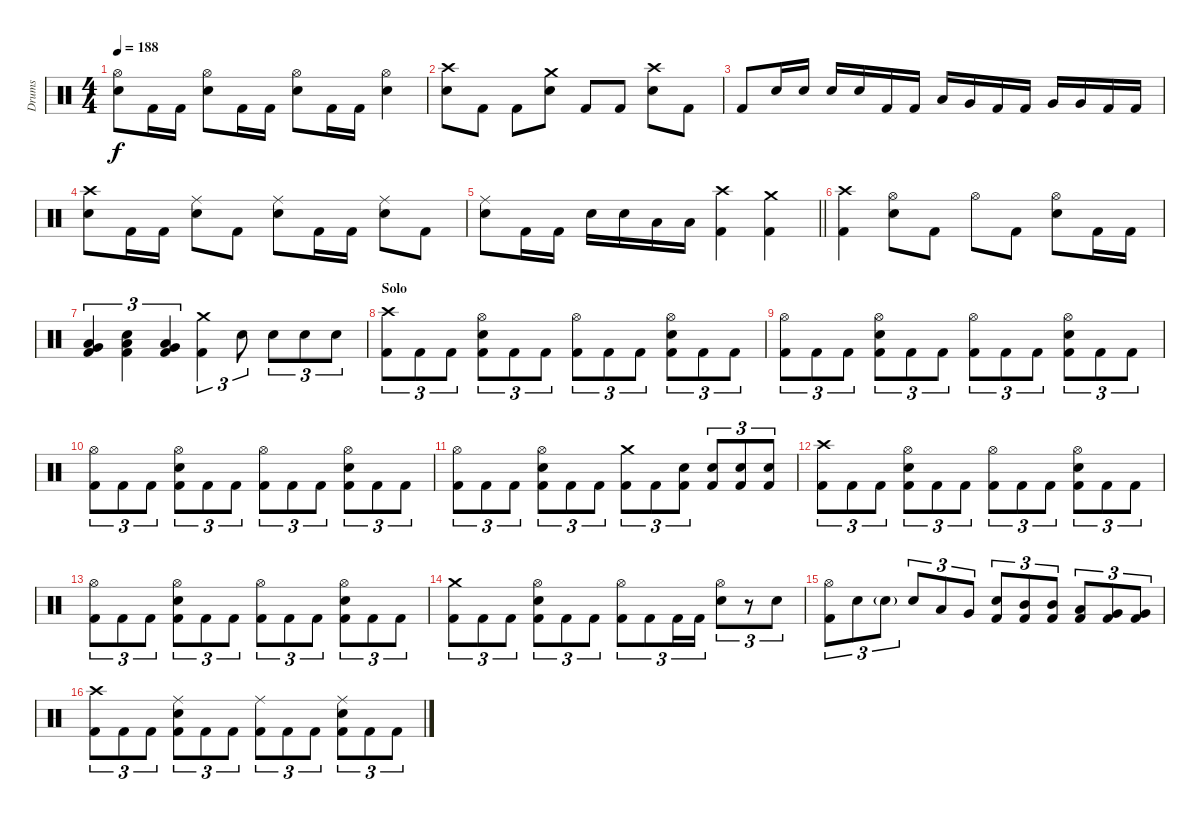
\track ("Drums" "Drums") {instrument percussion}
\staff {score}
\articulation defaults
\ts (4 4)
\tempo 188
\clef neutral
\ks c
("Hi-Hat (open)" "Electric Snare (hit)").8{dy f} "Kick (hit) 2".16 "Kick (hit) 2".16 ("Hi-Hat (open)" "Electric Snare (hit)").8 "Kick (hit) 2".16 "Kick (hit) 2".16 ("Hi-Hat (open)" "Electric Snare (hit)").8 "Kick (hit) 2".16 "Kick (hit) 2".16 ("Hi-Hat (open)" "Electric Snare (hit)").4 |
("Crash high (hit)" "Electric Snare (hit)").8 "Kick (hit) 2".8 "Kick (hit) 2".8 ("Crash medium (hit)" "Electric Snare (hit)").8 "Kick (hit) 2".8 "Kick (hit) 2".8 ("Crash high (hit)" "Electric Snare (hit)").8 "Kick (hit) 2".8 |
"Kick (hit) 2".8 "Electric Snare (hit)".16 "Electric Snare (hit)".16 "Electric Snare (hit)".16 "Electric Snare (hit)".16 "Kick (hit) 2".16 "Kick (hit) 2".16 "Low Tom (hit)".16 "Very Low Tom (hit)".16 "Kick (hit) 2".16 "Kick (hit) 2".16 "Very Low Tom (hit)".16 "Very Low Tom (hit)".16 "Kick (hit) 2".16 "Kick (hit) 2".16 |
("Crash high (hit)" "Electric Snare (hit)").8 "Kick (hit) 2".16 "Kick (hit) 2".16 ("Ride (middle)" "Electric Snare (hit)").8 "Kick (hit) 2".8 ("Ride (middle)" "Electric Snare (hit)").8 "Kick (hit) 2".16 "Kick (hit) 2".16 ("Ride (middle)" "Electric Snare (hit)").8 "Kick (hit) 2".8 |
\barLineRight lightlight
("Ride (middle)" "Electric Snare (hit)").8 "Kick (hit) 2".16 "Kick (hit) 2".16 "Electric Snare (hit)".16 "Electric Snare (hit)".16 "Low Tom (hit)".16 "Low Tom (hit)".16 ("Crash high (hit)" "Kick (hit) 2").4 ("Crash medium (hit)" "Kick (hit) 2").4 |
("Crash high (hit)" "Kick (hit) 2").4 ("Hi-Hat (open)" "Electric Snare (hit)").8 "Kick (hit) 2".8 "Hi-Hat (open)".8 "Kick (hit) 2".8 ("Hi-Hat (open)" "Electric Snare (hit)").8 "Kick (hit) 2".16 "Kick (hit) 2".16 |
("Low Tom (hit)" "Very Low Tom (hit)" "Kick (hit) 2").4{tu (3 2)} ("Low Tom (hit)" "Electric Snare (hit)" "Kick (hit) 2").4{tu (3 2)} ("Low Tom (hit)" "Very Low Tom (hit)" "Kick (hit) 2").4{tu (3 2)} ("Crash medium (hit)" "Kick (hit) 2").4{tu (3 2)} "Electric Snare (hit)".8{tu (3 2)} "Electric Snare (hit)".8{tu (3 2)} "Electric Snare (hit)".8{tu (3 2)} "Electric Snare (hit)".8{tu (3 2)} |
\section ("" "Solo")
("Crash high (hit)" "Kick (hit) 2").8{tu (3 2)} "Kick (hit) 2".8{tu (3 2)} "Kick (hit) 2".8{tu (3 2)} ("Hi-Hat (open)" "Electric Snare (hit)" "Kick (hit) 2").8{tu (3 2)} "Kick (hit) 2".8{tu (3 2)} "Kick (hit) 2".8{tu (3 2)} ("Hi-Hat (open)" "Kick (hit) 2").8{tu (3 2)} "Kick (hit) 2".8{tu (3 2)} "Kick (hit) 2".8{tu (3 2)} ("Hi-Hat (open)" "Electric Snare (hit)" "Kick (hit) 2").8{tu (3 2)} "Kick (hit) 2".8{tu (3 2)} "Kick (hit) 2".8{tu (3 2)} |
("Hi-Hat (open)" "Kick (hit) 2").8{tu (3 2)} "Kick (hit) 2".8{tu (3 2)} "Kick (hit) 2".8{tu (3 2)} ("Hi-Hat (open)" "Electric Snare (hit)" "Kick (hit) 2").8{tu (3 2)} "Kick (hit) 2".8{tu (3 2)} "Kick (hit) 2".8{tu (3 2)} ("Hi-Hat (open)" "Kick (hit) 2").8{tu (3 2)} "Kick (hit) 2".8{tu (3 2)} "Kick (hit) 2".8{tu (3 2)} ("Hi-Hat (open)" "Electric Snare (hit)" "Kick (hit) 2").8{tu (3 2)} "Kick (hit) 2".8{tu (3 2)} "Kick (hit) 2".8{tu (3 2)} |
("Hi-Hat (open)" "Kick (hit) 2").8{tu (3 2)} "Kick (hit) 2".8{tu (3 2)} "Kick (hit) 2".8{tu (3 2)} ("Hi-Hat (open)" "Electric Snare (hit)" "Kick (hit) 2").8{tu (3 2)} "Kick (hit) 2".8{tu (3 2)} "Kick (hit) 2".8{tu (3 2)} ("Hi-Hat (open)" "Kick (hit) 2").8{tu (3 2)} "Kick (hit) 2".8{tu (3 2)} "Kick (hit) 2".8{tu (3 2)} ("Hi-Hat (open)" "Electric Snare (hit)" "Kick (hit) 2").8{tu (3 2)} "Kick (hit) 2".8{tu (3 2)} "Kick (hit) 2".8{tu (3 2)} |
("Hi-Hat (open)" "Kick (hit) 2").8{tu (3 2)} "Kick (hit) 2".8{tu (3 2)} "Kick (hit) 2".8{tu (3 2)} ("Hi-Hat (open)" "Electric Snare (hit)" "Kick (hit) 2").8{tu (3 2)} "Kick (hit) 2".8{tu (3 2)} "Kick (hit) 2".8{tu (3 2)} ("Crash medium (hit)" "Kick (hit) 2").8{tu (3 2)} "Kick (hit) 2".8{tu (3 2)} ("Electric Snare (hit)" "Kick (hit) 2").8{tu (3 2)} ("Electric Snare (hit)" "Kick (hit) 2").8{tu (3 2)} ("Electric Snare (hit)" "Kick (hit) 2").8{tu (3 2)} ("Electric Snare (hit)" "Kick (hit) 2").8{tu (3 2)} |
("Crash high (hit)" "Kick (hit) 2").8{tu (3 2)} "Kick (hit) 2".8{tu (3 2)} "Kick (hit) 2".8{tu (3 2)} ("Hi-Hat (open)" "Electric Snare (hit)" "Kick (hit) 2").8{tu (3 2)} "Kick (hit) 2".8{tu (3 2)} "Kick (hit) 2".8{tu (3 2)} ("Hi-Hat (open)" "Kick (hit) 2").8{tu (3 2)} "Kick (hit) 2".8{tu (3 2)} "Kick (hit) 2".8{tu (3 2)} ("Hi-Hat (open)" "Electric Snare (hit)" "Kick (hit) 2").8{tu (3 2)} "Kick (hit) 2".8{tu (3 2)} "Kick (hit) 2".8{tu (3 2)} |
("Hi-Hat (open)" "Kick (hit) 2").8{tu (3 2)} "Kick (hit) 2".8{tu (3 2)} "Kick (hit) 2".8{tu (3 2)} ("Hi-Hat (open)" "Electric Snare (hit)" "Kick (hit) 2").8{tu (3 2)} "Kick (hit) 2".8{tu (3 2)} "Kick (hit) 2".8{tu (3 2)} ("Hi-Hat (open)" "Kick (hit) 2").8{tu (3 2)} "Kick (hit) 2".8{tu (3 2)} "Kick (hit) 2".8{tu (3 2)} ("Hi-Hat (open)" "Electric Snare (hit)" "Kick (hit) 2").8{tu (3 2)} "Kick (hit) 2".8{tu (3 2)} "Kick (hit) 2".8{tu (3 2)} |
("Crash medium (hit)" "Kick (hit) 2").8{tu (3 2)} "Kick (hit) 2".8{tu (3 2)} "Kick (hit) 2".8{tu (3 2)} ("Hi-Hat (open)" "Electric Snare (hit)" "Kick (hit) 2").8{tu (3 2)} "Kick (hit) 2".8{tu (3 2)} "Kick (hit) 2".8{tu (3 2)} ("Hi-Hat (open)" "Kick (hit) 2").8{tu (3 2)} "Kick (hit) 2".8{tu (3 2)} "Kick (hit) 2".16{tu (3 2)} "Kick (hit) 2".16{tu (3 2)} ("Hi-Hat (open)" "Electric Snare (hit)").8{tu (3 2)} r.8{tu (3 2)} "Electric Snare (hit)".8{tu (3 2)} |
("Hi-Hat (open)" "Kick (hit) 2").8{tu (3 2)} "Electric Snare (hit)".8{tu (3 2)} "Electric Snare (hit)"{g}.8{tu (3 2)} "Electric Snare (hit)".8{tu (3 2)} "Low Tom (hit)".8{tu (3 2)} "Very Low Tom (hit)".8{tu (3 2)} ("Electric Snare (hit)" "Kick (hit) 2").8{tu (3 2)} ("Mid Tom (hit)" "Kick (hit) 2").8{tu (3 2)} ("Mid Tom (hit)" "Kick (hit) 2").8{tu (3 2)} ("Low Tom (hit)" "Kick (hit) 2").8{tu (3 2)} ("Very Low Tom (hit)" "Kick (hit) 2").8{tu (3 2)} ("Very Low Tom (hit)" "Kick (hit) 2").8{tu (3 2)} |
("Crash high (hit)" "Kick (hit) 2").8{tu (3 2)} "Kick (hit) 2".8{tu (3 2)} "Kick (hit) 2".8{tu (3 2)} ("Ride (middle)" "Electric Snare (hit)" "Kick (hit) 2").8{tu (3 2)} "Kick (hit) 2".8{tu (3 2)} "Kick (hit) 2".8{tu (3 2)} ("Ride (middle)" "Kick (hit) 2").8{tu (3 2)} "Kick (hit) 2".8{tu (3 2)} "Kick (hit) 2".8{tu (3 2)} ("Ride (middle)" "Electric Snare (hit)" "Kick (hit) 2").8{tu (3 2)} "Kick (hit) 2".8{tu (3 2)} "Kick (hit) 2".8{tu (3 2)}
